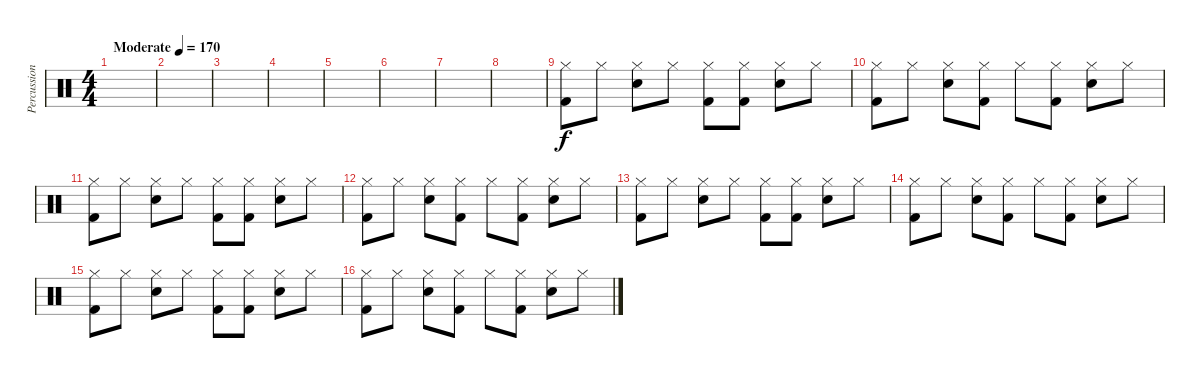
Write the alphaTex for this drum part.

\track ("Percussion" "Percussion") {instrument percussion}
\staff {score}
\articulation defaults
\ts (4 4)
\tempo (170 "Moderate")
\clef neutral
\ks c
|
|
|
|
|
|
|
|
("Hi-Hat (closed)" "Kick (hit) 2").8 "Hi-Hat (closed)".8 ("Hi-Hat (closed)" "Electric Snare (hit)").8 "Hi-Hat (closed)".8 ("Hi-Hat (closed)" "Kick (hit) 2").8 ("Hi-Hat (closed)" "Kick (hit) 2").8 ("Hi-Hat (closed)" "Electric Snare (hit)").8 "Hi-Hat (closed)".8 |
("Hi-Hat (closed)" "Kick (hit) 2").8 "Hi-Hat (closed)".8 ("Hi-Hat (closed)" "Electric Snare (hit)").8 ("Hi-Hat (closed)" "Kick (hit) 2").8 "Hi-Hat (closed)".8 ("Hi-Hat (closed)" "Kick (hit) 2").8 ("Hi-Hat (closed)" "Electric Snare (hit)").8 "Hi-Hat (closed)".8 |
("Hi-Hat (closed)" "Kick (hit) 2").8 "Hi-Hat (closed)".8 ("Hi-Hat (closed)" "Electric Snare (hit)").8 "Hi-Hat (closed)".8 ("Hi-Hat (closed)" "Kick (hit) 2").8 ("Hi-Hat (closed)" "Kick (hit) 2").8 ("Hi-Hat (closed)" "Electric Snare (hit)").8 "Hi-Hat (closed)".8 |
("Hi-Hat (closed)" "Kick (hit) 2").8 "Hi-Hat (closed)".8 ("Hi-Hat (closed)" "Electric Snare (hit)").8 ("Hi-Hat (closed)" "Kick (hit) 2").8 "Hi-Hat (closed)".8 ("Hi-Hat (closed)" "Kick (hit) 2").8 ("Hi-Hat (closed)" "Electric Snare (hit)").8 "Hi-Hat (closed)".8 |
("Hi-Hat (closed)" "Kick (hit) 2").8 "Hi-Hat (closed)".8 ("Hi-Hat (closed)" "Electric Snare (hit)").8 "Hi-Hat (closed)".8 ("Hi-Hat (closed)" "Kick (hit) 2").8 ("Hi-Hat (closed)" "Kick (hit) 2").8 ("Hi-Hat (closed)" "Electric Snare (hit)").8 "Hi-Hat (closed)".8 |
("Hi-Hat (closed)" "Kick (hit) 2").8 "Hi-Hat (closed)".8 ("Hi-Hat (closed)" "Electric Snare (hit)").8 ("Hi-Hat (closed)" "Kick (hit) 2").8 "Hi-Hat (closed)".8 ("Hi-Hat (closed)" "Kick (hit) 2").8 ("Hi-Hat (closed)" "Electric Snare (hit)").8 "Hi-Hat (closed)".8 |
("Hi-Hat (closed)" "Kick (hit) 2").8 "Hi-Hat (closed)".8 ("Hi-Hat (closed)" "Electric Snare (hit)").8 "Hi-Hat (closed)".8 ("Hi-Hat (closed)" "Kick (hit) 2").8 ("Hi-Hat (closed)" "Kick (hit) 2").8 ("Hi-Hat (closed)" "Electric Snare (hit)").8 "Hi-Hat (closed)".8 |
("Hi-Hat (closed)" "Kick (hit) 2").8 "Hi-Hat (closed)".8 ("Hi-Hat (closed)" "Electric Snare (hit)").8 ("Hi-Hat (closed)" "Kick (hit) 2").8 "Hi-Hat (closed)".8 ("Hi-Hat (closed)" "Kick (hit) 2").8 ("Hi-Hat (closed)" "Electric Snare (hit)").8 "Hi-Hat (closed)".8
